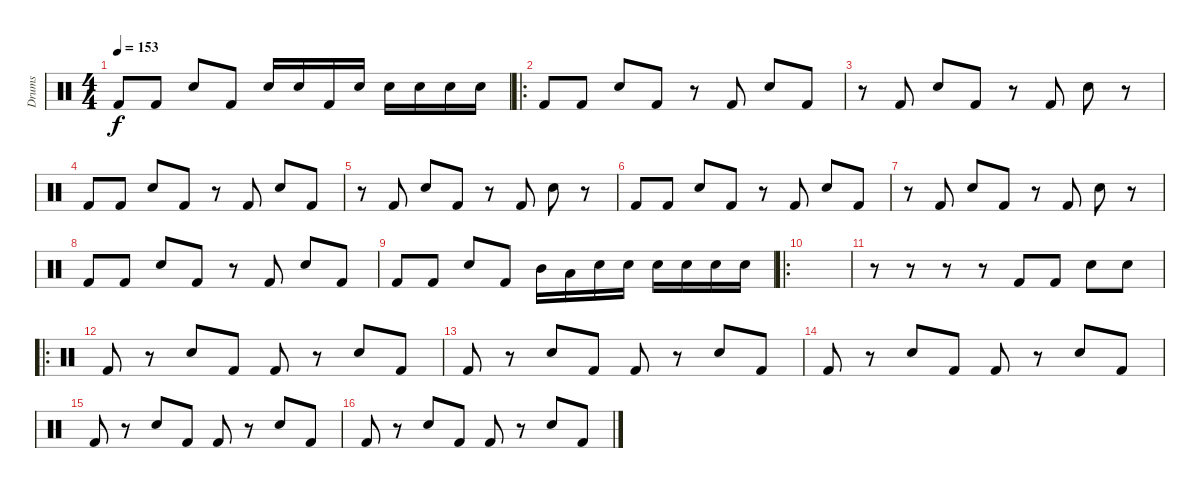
\track ("Drums" "Drums") {instrument percussion}
\staff {score}
\articulation defaults
\ts (4 4)
\tempo 153
\clef neutral
\ks c "Kick (hit) 2".8{dy f} "Kick (hit) 2".8 "Snare (hit) 2".8 "Kick (hit) 2".8 "Snare (hit) 2".16 "Snare (hit) 2".16 "Kick (hit) 2".16 "Snare (hit) 2".16 "Snare (hit) 2".16 "Snare (hit) 2".16 "Snare (hit) 2".16 "Snare (hit) 2".16
|
\ro "Kick (hit) 2".8 "Kick (hit) 2".8 "Snare (hit) 2".8 "Kick (hit) 2".8
r.8 "Kick (hit) 2".8 "Snare (hit) 2".8 "Kick (hit) 2".8 |
r.8 "Kick (hit) 2".8 "Snare (hit) 2".8 "Kick (hit) 2".8 r.8 "Kick (hit) 2".8 "Snare (hit) 2".8 r.8 |
"Kick (hit) 2".8 "Kick (hit) 2".8 "Snare (hit) 2".8 "Kick (hit) 2".8 r.8 "Kick (hit) 2".8 "Snare (hit) 2".8 "Kick (hit) 2".8 |
r.8 "Kick (hit) 2".8 "Snare (hit) 2".8 "Kick (hit) 2".8 r.8 "Kick (hit) 2".8 "Snare (hit) 2".8 r.8 |
"Kick (hit) 2".8 "Kick (hit) 2".8 "Snare (hit) 2".8 "Kick (hit) 2".8 r.8 "Kick (hit) 2".8 "Snare (hit) 2".8 "Kick (hit) 2".8 |
r.8 "Kick (hit) 2".8 "Snare (hit) 2".8 "Kick (hit) 2".8 r.8 "Kick (hit) 2".8 "Snare (hit) 2".8 r.8 |
"Kick (hit) 2".8 "Kick (hit) 2".8 "Snare (hit) 2".8 "Kick (hit) 2".8 r.8 "Kick (hit) 2".8 "Snare (hit) 2".8 "Kick (hit) 2".8 |
"Kick (hit) 2".8 "Kick (hit) 2".8 "Snare (hit) 2".8 "Kick (hit) 2".8 "Mid Tom (hit)".16 "Low Tom (hit)".16 "Snare (hit) 2".16 "Snare (hit) 2".16 "Snare (hit) 2".16 "Snare (hit) 2".16 "Snare (hit) 2".16 "Snare (hit) 2".16 |
\ro
|
r.8 r.8 r.8 r.8 "Kick (hit) 2".8 "Kick (hit) 2".8 "Snare (hit) 2".8 "Snare (hit) 2".8 |
\ro "Kick (hit) 2".8
r.8 "Snare (hit) 2".8 "Kick (hit) 2".8 "Kick (hit) 2".8 r.8 "Snare (hit) 2".8 "Kick (hit) 2".8 |
"Kick (hit) 2".8 r.8 "Snare (hit) 2".8 "Kick (hit) 2".8 "Kick (hit) 2".8 r.8 "Snare (hit) 2".8 "Kick (hit) 2".8 |
"Kick (hit) 2".8 r.8 "Snare (hit) 2".8 "Kick (hit) 2".8 "Kick (hit) 2".8 r.8 "Snare (hit) 2".8 "Kick (hit) 2".8 |
"Kick (hit) 2".8 r.8 "Snare (hit) 2".8 "Kick (hit) 2".8 "Kick (hit) 2".8 r.8 "Snare (hit) 2".8 "Kick (hit) 2".8 |
"Kick (hit) 2".8 r.8 "Snare (hit) 2".8 "Kick (hit) 2".8 "Kick (hit) 2".8 r.8 "Snare (hit) 2".8 "Kick (hit) 2".8
